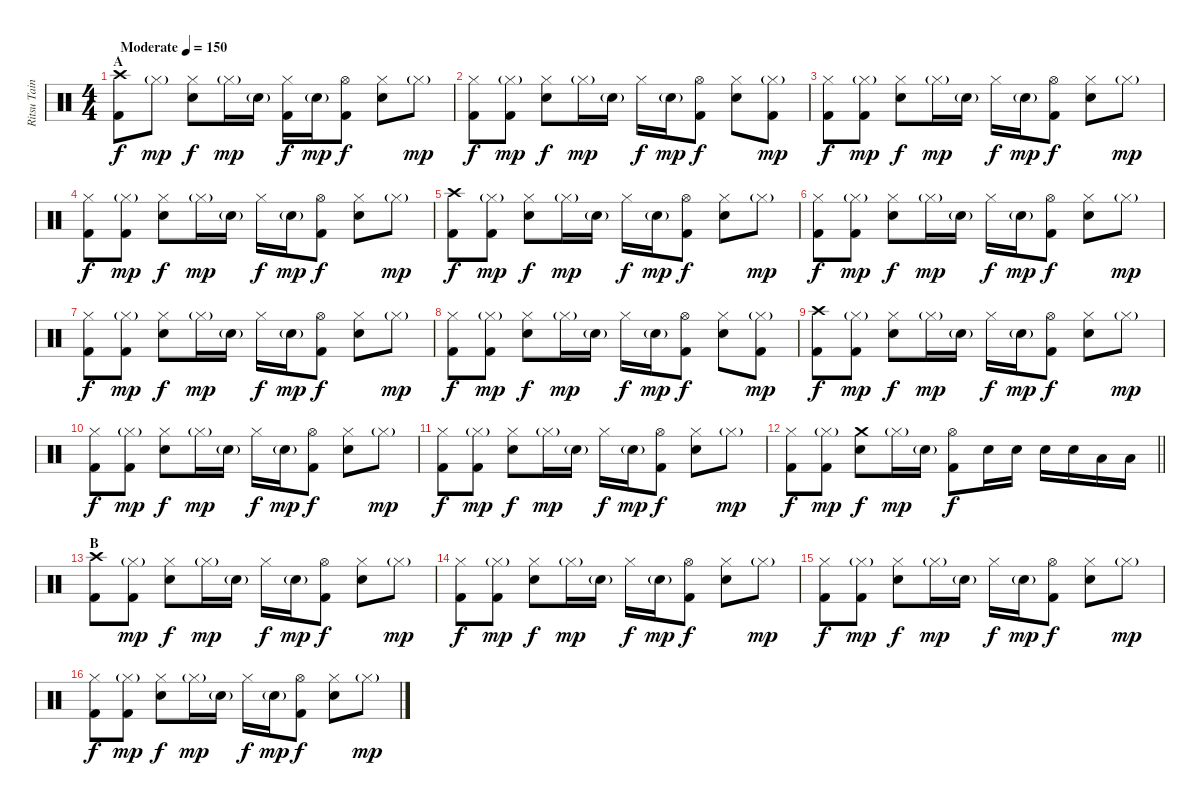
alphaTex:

\track ("Ritsu Tainaka" "Ritsu Tain") {instrument percussion}
\staff {score}
\articulation defaults
\ts (4 4)
\section ("" "A")
\tempo (150 "Moderate")
\clef neutral
\ks c
("Crash high (hit)" "Kick (hit) 2").8{dy f} "Hi-Hat (closed)"{g}.8{dy mp} ("Hi-Hat (closed)" "Electric Snare (hit)").8{dy f} "Hi-Hat (closed)"{g}.16{dy mp} "Electric Snare (hit)"{g}.16 ("Hi-Hat (closed)" "Kick (hit) 2").16{dy f} "Electric Snare (hit)"{g}.16{dy mp} ("Hi-Hat (open)" "Kick (hit) 2").8{dy f} ("Hi-Hat (closed)" "Electric Snare (hit)").8 "Hi-Hat (closed)"{g}.8{dy mp} |
("Hi-Hat (closed)" "Kick (hit) 2").8{dy f} ("Hi-Hat (closed)"{g} "Kick (hit) 2").8{dy mp} ("Hi-Hat (closed)" "Electric Snare (hit)").8{dy f} "Hi-Hat (closed)"{g}.16{dy mp} "Electric Snare (hit)"{g}.16 "Hi-Hat (closed)".16{dy f} "Electric Snare (hit)"{g}.16{dy mp} ("Hi-Hat (open)" "Kick (hit) 2").8{dy f} ("Hi-Hat (closed)" "Electric Snare (hit)").8 ("Hi-Hat (closed)"{g} "Kick (hit) 2").8{dy mp} |
("Hi-Hat (closed)" "Kick (hit) 2").8{dy f} ("Hi-Hat (closed)"{g} "Kick (hit) 2").8{dy mp} ("Hi-Hat (closed)" "Electric Snare (hit)").8{dy f} "Hi-Hat (closed)"{g}.16{dy mp} "Electric Snare (hit)"{g}.16 "Hi-Hat (closed)".16{dy f} "Electric Snare (hit)"{g}.16{dy mp} ("Hi-Hat (open)" "Kick (hit) 2").8{dy f} ("Hi-Hat (closed)" "Electric Snare (hit)").8 "Hi-Hat (closed)"{g}.8{dy mp} |
("Hi-Hat (closed)" "Kick (hit) 2").8{dy f} ("Hi-Hat (closed)"{g} "Kick (hit) 2").8{dy mp} ("Hi-Hat (closed)" "Electric Snare (hit)").8{dy f} "Hi-Hat (closed)"{g}.16{dy mp} "Electric Snare (hit)"{g}.16 "Hi-Hat (closed)".16{dy f} "Electric Snare (hit)"{g}.16{dy mp} ("Hi-Hat (open)" "Kick (hit) 2").8{dy f} ("Hi-Hat (closed)" "Electric Snare (hit)").8 "Hi-Hat (closed)"{g}.8{dy mp} |
("Crash high (hit)" "Kick (hit) 2").8{dy f} ("Hi-Hat (closed)"{g} "Kick (hit) 2").8{dy mp} ("Hi-Hat (closed)" "Electric Snare (hit)").8{dy f} "Hi-Hat (closed)"{g}.16{dy mp} "Electric Snare (hit)"{g}.16 "Hi-Hat (closed)".16{dy f} "Electric Snare (hit)"{g}.16{dy mp} ("Hi-Hat (open)" "Kick (hit) 2").8{dy f} ("Hi-Hat (closed)" "Electric Snare (hit)").8 "Hi-Hat (closed)"{g}.8{dy mp} |
("Hi-Hat (closed)" "Kick (hit) 2").8{dy f} ("Hi-Hat (closed)"{g} "Kick (hit) 2").8{dy mp} ("Hi-Hat (closed)" "Electric Snare (hit)").8{dy f} "Hi-Hat (closed)"{g}.16{dy mp} "Electric Snare (hit)"{g}.16 "Hi-Hat (closed)".16{dy f} "Electric Snare (hit)"{g}.16{dy mp} ("Hi-Hat (open)" "Kick (hit) 2").8{dy f} ("Hi-Hat (closed)" "Electric Snare (hit)").8 "Hi-Hat (closed)"{g}.8{dy mp} |
("Hi-Hat (closed)" "Kick (hit) 2").8{dy f} ("Hi-Hat (closed)"{g} "Kick (hit) 2").8{dy mp} ("Hi-Hat (closed)" "Electric Snare (hit)").8{dy f} "Hi-Hat (closed)"{g}.16{dy mp} "Electric Snare (hit)"{g}.16 "Hi-Hat (closed)".16{dy f} "Electric Snare (hit)"{g}.16{dy mp} ("Hi-Hat (open)" "Kick (hit) 2").8{dy f} ("Hi-Hat (closed)" "Electric Snare (hit)").8 "Hi-Hat (closed)"{g}.8{dy mp} |
("Hi-Hat (closed)" "Kick (hit) 2").8{dy f} ("Hi-Hat (closed)"{g} "Kick (hit) 2").8{dy mp} ("Hi-Hat (closed)" "Electric Snare (hit)").8{dy f} "Hi-Hat (closed)"{g}.16{dy mp} "Electric Snare (hit)"{g}.16 "Hi-Hat (closed)".16{dy f} "Electric Snare (hit)"{g}.16{dy mp} ("Hi-Hat (open)" "Kick (hit) 2").8{dy f} ("Hi-Hat (closed)" "Electric Snare (hit)").8 ("Hi-Hat (closed)"{g} "Kick (hit) 2").8{dy mp} |
("Crash high (hit)" "Kick (hit) 2").8{dy f} ("Hi-Hat (closed)"{g} "Kick (hit) 2").8{dy mp} ("Hi-Hat (closed)" "Electric Snare (hit)").8{dy f} "Hi-Hat (closed)"{g}.16{dy mp} "Electric Snare (hit)"{g}.16 "Hi-Hat (closed)".16{dy f} "Electric Snare (hit)"{g}.16{dy mp} ("Hi-Hat (open)" "Kick (hit) 2").8{dy f} ("Hi-Hat (closed)" "Electric Snare (hit)").8 "Hi-Hat (closed)"{g}.8{dy mp} |
("Hi-Hat (closed)" "Kick (hit) 2").8{dy f} ("Hi-Hat (closed)"{g} "Kick (hit) 2").8{dy mp} ("Hi-Hat (closed)" "Electric Snare (hit)").8{dy f} "Hi-Hat (closed)"{g}.16{dy mp} "Electric Snare (hit)"{g}.16 "Hi-Hat (closed)".16{dy f} "Electric Snare (hit)"{g}.16{dy mp} ("Hi-Hat (open)" "Kick (hit) 2").8{dy f} ("Hi-Hat (closed)" "Electric Snare (hit)").8 "Hi-Hat (closed)"{g}.8{dy mp} |
("Hi-Hat (closed)" "Kick (hit) 2").8{dy f} ("Hi-Hat (closed)"{g} "Kick (hit) 2").8{dy mp} ("Hi-Hat (closed)" "Electric Snare (hit)").8{dy f} "Hi-Hat (closed)"{g}.16{dy mp} "Electric Snare (hit)"{g}.16 "Hi-Hat (closed)".16{dy f} "Electric Snare (hit)"{g}.16{dy mp} ("Hi-Hat (open)" "Kick (hit) 2").8{dy f} ("Hi-Hat (closed)" "Electric Snare (hit)").8 "Hi-Hat (closed)"{g}.8{dy mp} |
\barLineRight lightlight
("Hi-Hat (closed)" "Kick (hit) 2").8{dy f} ("Hi-Hat (closed)"{g} "Kick (hit) 2").8{dy mp} ("Crash medium (hit)" "Electric Snare (hit)").8{dy f} "Hi-Hat (closed)"{g}.16{dy mp} "Snare (hit) 2"{g}.16 ("Hi-Hat (open)" "Kick (hit) 2").8{dy f} "Electric Snare (hit)".16 "Electric Snare (hit)".16 "Electric Snare (hit)".16 "Electric Snare (hit)".16 "Low Tom (hit)".16 "Low Tom (hit)".16 |
\section ("" "B")
("Crash high (hit)" "Kick (hit) 2").8 ("Hi-Hat (closed)"{g} "Kick (hit) 2").8{dy mp} ("Hi-Hat (closed)" "Electric Snare (hit)").8{dy f} "Hi-Hat (closed)"{g}.16{dy mp} "Electric Snare (hit)"{g}.16 "Hi-Hat (closed)".16{dy f} "Electric Snare (hit)"{g}.16{dy mp} ("Hi-Hat (open)" "Kick (hit) 2").8{dy f} ("Hi-Hat (closed)" "Electric Snare (hit)").8 "Hi-Hat (closed)"{g}.8{dy mp} |
("Hi-Hat (closed)" "Kick (hit) 2").8{dy f} ("Hi-Hat (closed)"{g} "Kick (hit) 2").8{dy mp} ("Hi-Hat (closed)" "Electric Snare (hit)").8{dy f} "Hi-Hat (closed)"{g}.16{dy mp} "Electric Snare (hit)"{g}.16 "Hi-Hat (closed)".16{dy f} "Electric Snare (hit)"{g}.16{dy mp} ("Hi-Hat (open)" "Kick (hit) 2").8{dy f} ("Hi-Hat (closed)" "Electric Snare (hit)").8 "Hi-Hat (closed)"{g}.8{dy mp} |
("Hi-Hat (closed)" "Kick (hit) 2").8{dy f} ("Hi-Hat (closed)"{g} "Kick (hit) 2").8{dy mp} ("Hi-Hat (closed)" "Electric Snare (hit)").8{dy f} "Hi-Hat (closed)"{g}.16{dy mp} "Electric Snare (hit)"{g}.16 "Hi-Hat (closed)".16{dy f} "Electric Snare (hit)"{g}.16{dy mp} ("Hi-Hat (open)" "Kick (hit) 2").8{dy f} ("Hi-Hat (closed)" "Electric Snare (hit)").8 "Hi-Hat (closed)"{g}.8{dy mp} |
("Hi-Hat (closed)" "Kick (hit) 2").8{dy f} ("Hi-Hat (closed)"{g} "Kick (hit) 2").8{dy mp} ("Hi-Hat (closed)" "Electric Snare (hit)").8{dy f} "Hi-Hat (closed)"{g}.16{dy mp} "Electric Snare (hit)"{g}.16 "Hi-Hat (closed)".16{dy f} "Electric Snare (hit)"{g}.16{dy mp} ("Hi-Hat (open)" "Kick (hit) 2").8{dy f} ("Hi-Hat (closed)" "Electric Snare (hit)").8 "Hi-Hat (closed)"{g}.8{dy mp}
